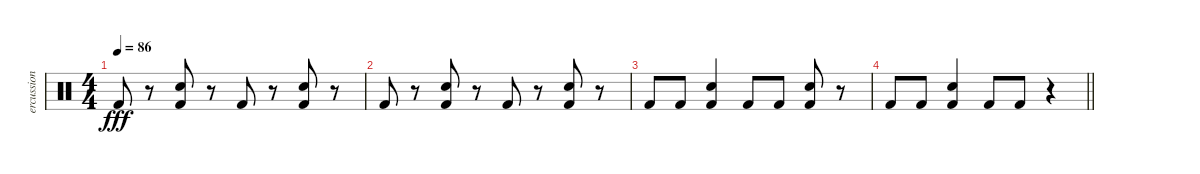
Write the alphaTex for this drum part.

\track ("ercussion" "ercussion") {instrument percussion}
\staff {score}
\articulation defaults
\ts (4 4)
\tempo 86
\clef neutral
\ks c "Kick (hit) 2".8{dy fff}
r.8 ("Snare (hit) 2" "Kick (hit) 2").8 r.8 "Kick (hit) 2".8 r.8 ("Snare (hit) 2" "Kick (hit) 2").8 r.8 |
"Kick (hit) 2".8 r.8 ("Snare (hit) 2" "Kick (hit) 2").8 r.8 "Kick (hit) 2".8 r.8 ("Snare (hit) 2" "Kick (hit) 2").8 r.8 |
"Kick (hit) 2".8 "Kick (hit) 2".8 ("Snare (hit) 2" "Kick (hit) 2").4 "Kick (hit) 2".8 "Kick (hit) 2".8 ("Snare (hit) 2" "Kick (hit) 2").8 r.8 |
\barLineRight lightlight "Kick (hit) 2".8 "Kick (hit) 2".8
("Snare (hit) 2" "Kick (hit) 2").4 "Kick (hit) 2".8 "Kick (hit) 2".8 r.4
